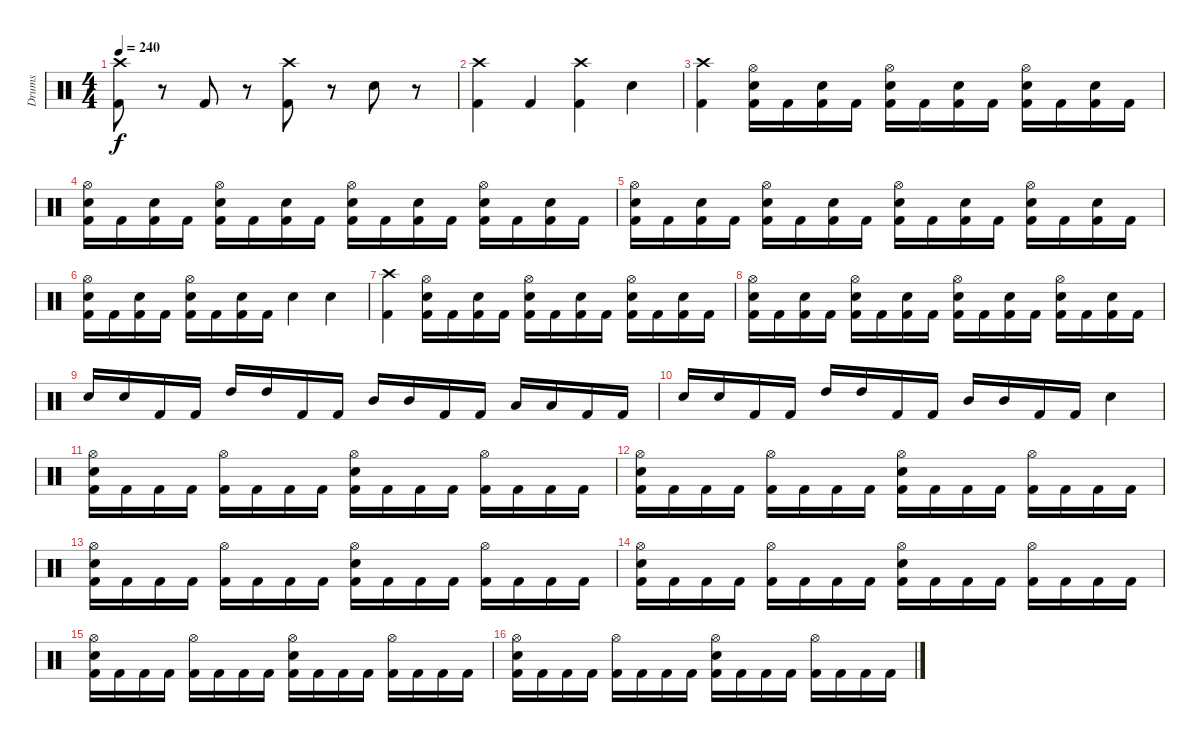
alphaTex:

\track ("Drums" "Drums") {instrument percussion}
\staff {score}
\articulation defaults
\ts (4 4)
\tempo 240
\clef neutral
\ks c
("Crash high (hit)" "Kick (hit) 2").8{dy f} r.8 "Kick (hit) 2".8 r.8 ("Crash high (hit)" "Kick (hit) 2").8 r.8 "Snare (hit) 2".8 r.8 |
("Crash high (hit)" "Kick (hit) 2").4 "Kick (hit) 2".4 ("Crash high (hit)" "Kick (hit) 2").4 "Snare (hit) 2".4 |
("Crash high (hit)" "Kick (hit) 2").4 ("Hi-Hat (open)" "Snare (hit) 2" "Kick (hit) 2").16 "Kick (hit) 2".16 ("Snare (hit) 2" "Kick (hit) 2").16 "Kick (hit) 2".16 ("Hi-Hat (open)" "Snare (hit) 2" "Kick (hit) 2").16 "Kick (hit) 2".16 ("Snare (hit) 2" "Kick (hit) 2").16 "Kick (hit) 2".16 ("Hi-Hat (open)" "Snare (hit) 2" "Kick (hit) 2").16 "Kick (hit) 2".16 ("Snare (hit) 2" "Kick (hit) 2").16 "Kick (hit) 2".16 |
("Hi-Hat (open)" "Snare (hit) 2" "Kick (hit) 2").16 "Kick (hit) 2".16 ("Snare (hit) 2" "Kick (hit) 2").16 "Kick (hit) 2".16 ("Hi-Hat (open)" "Snare (hit) 2" "Kick (hit) 2").16 "Kick (hit) 2".16 ("Snare (hit) 2" "Kick (hit) 2").16 "Kick (hit) 2".16 ("Hi-Hat (open)" "Snare (hit) 2" "Kick (hit) 2").16 "Kick (hit) 2".16 ("Snare (hit) 2" "Kick (hit) 2").16 "Kick (hit) 2".16 ("Hi-Hat (open)" "Snare (hit) 2" "Kick (hit) 2").16 "Kick (hit) 2".16 ("Snare (hit) 2" "Kick (hit) 2").16 "Kick (hit) 2".16 |
("Hi-Hat (open)" "Snare (hit) 2" "Kick (hit) 2").16 "Kick (hit) 2".16 ("Snare (hit) 2" "Kick (hit) 2").16 "Kick (hit) 2".16 ("Hi-Hat (open)" "Snare (hit) 2" "Kick (hit) 2").16 "Kick (hit) 2".16 ("Snare (hit) 2" "Kick (hit) 2").16 "Kick (hit) 2".16 ("Hi-Hat (open)" "Snare (hit) 2" "Kick (hit) 2").16 "Kick (hit) 2".16 ("Snare (hit) 2" "Kick (hit) 2").16 "Kick (hit) 2".16 ("Hi-Hat (open)" "Snare (hit) 2" "Kick (hit) 2").16 "Kick (hit) 2".16 ("Snare (hit) 2" "Kick (hit) 2").16 "Kick (hit) 2".16 |
("Hi-Hat (open)" "Snare (hit) 2" "Kick (hit) 2").16 "Kick (hit) 2".16 ("Snare (hit) 2" "Kick (hit) 2").16 "Kick (hit) 2".16 ("Hi-Hat (open)" "Snare (hit) 2" "Kick (hit) 2").16 "Kick (hit) 2".16 ("Snare (hit) 2" "Kick (hit) 2").16 "Kick (hit) 2".16 "Snare (hit) 2".4 "Snare (hit) 2".4 |
("Crash high (hit)" "Kick (hit) 2").4 ("Hi-Hat (open)" "Snare (hit) 2" "Kick (hit) 2").16 "Kick (hit) 2".16 ("Snare (hit) 2" "Kick (hit) 2").16 "Kick (hit) 2".16 ("Hi-Hat (open)" "Snare (hit) 2" "Kick (hit) 2").16 "Kick (hit) 2".16 ("Snare (hit) 2" "Kick (hit) 2").16 "Kick (hit) 2".16 ("Hi-Hat (open)" "Snare (hit) 2" "Kick (hit) 2").16 "Kick (hit) 2".16 ("Snare (hit) 2" "Kick (hit) 2").16 "Kick (hit) 2".16 |
("Hi-Hat (open)" "Snare (hit) 2" "Kick (hit) 2").16 "Kick (hit) 2".16 ("Snare (hit) 2" "Kick (hit) 2").16 "Kick (hit) 2".16 ("Hi-Hat (open)" "Snare (hit) 2" "Kick (hit) 2").16 "Kick (hit) 2".16 ("Snare (hit) 2" "Kick (hit) 2").16 "Kick (hit) 2".16 ("Hi-Hat (open)" "Snare (hit) 2" "Kick (hit) 2").16 "Kick (hit) 2".16 ("Snare (hit) 2" "Kick (hit) 2").16 "Kick (hit) 2".16 ("Hi-Hat (open)" "Snare (hit) 2" "Kick (hit) 2").16 "Kick (hit) 2".16 ("Snare (hit) 2" "Kick (hit) 2").16 "Kick (hit) 2".16 |
"Snare (hit) 2".16 "Snare (hit) 2".16 "Kick (hit) 2".16 "Kick (hit) 2".16 "High Tom (hit)".16 "High Tom (hit)".16 "Kick (hit) 2".16 "Kick (hit) 2".16 "Mid Tom (hit)".16 "Mid Tom (hit)".16 "Kick (hit) 2".16 "Kick (hit) 2".16 "Low Tom (hit)".16 "Low Tom (hit)".16 "Kick (hit) 2".16 "Kick (hit) 2".16 |
"Snare (hit) 2".16 "Snare (hit) 2".16 "Kick (hit) 2".16 "Kick (hit) 2".16 "High Tom (hit)".16 "High Tom (hit)".16 "Kick (hit) 2".16 "Kick (hit) 2".16 "Mid Tom (hit)".16 "Mid Tom (hit)".16 "Kick (hit) 2".16 "Kick (hit) 2".16 "Snare (hit) 2".4 |
("Hi-Hat (open)" "Snare (hit) 2" "Kick (hit) 2").16 "Kick (hit) 2".16 "Kick (hit) 2".16 "Kick (hit) 2".16 ("Hi-Hat (open)" "Kick (hit) 2").16 "Kick (hit) 2".16 "Kick (hit) 2".16 "Kick (hit) 2".16 ("Hi-Hat (open)" "Snare (hit) 2" "Kick (hit) 2").16 "Kick (hit) 2".16 "Kick (hit) 2".16 "Kick (hit) 2".16 ("Hi-Hat (open)" "Kick (hit) 2").16 "Kick (hit) 2".16 "Kick (hit) 2".16 "Kick (hit) 2".16 |
("Hi-Hat (open)" "Snare (hit) 2" "Kick (hit) 2").16 "Kick (hit) 2".16 "Kick (hit) 2".16 "Kick (hit) 2".16 ("Hi-Hat (open)" "Kick (hit) 2").16 "Kick (hit) 2".16 "Kick (hit) 2".16 "Kick (hit) 2".16 ("Hi-Hat (open)" "Snare (hit) 2" "Kick (hit) 2").16 "Kick (hit) 2".16 "Kick (hit) 2".16 "Kick (hit) 2".16 ("Hi-Hat (open)" "Kick (hit) 2").16 "Kick (hit) 2".16 "Kick (hit) 2".16 "Kick (hit) 2".16 |
("Hi-Hat (open)" "Snare (hit) 2" "Kick (hit) 2").16 "Kick (hit) 2".16 "Kick (hit) 2".16 "Kick (hit) 2".16 ("Hi-Hat (open)" "Kick (hit) 2").16 "Kick (hit) 2".16 "Kick (hit) 2".16 "Kick (hit) 2".16 ("Hi-Hat (open)" "Snare (hit) 2" "Kick (hit) 2").16 "Kick (hit) 2".16 "Kick (hit) 2".16 "Kick (hit) 2".16 ("Hi-Hat (open)" "Kick (hit) 2").16 "Kick (hit) 2".16 "Kick (hit) 2".16 "Kick (hit) 2".16 |
("Hi-Hat (open)" "Snare (hit) 2" "Kick (hit) 2").16 "Kick (hit) 2".16 "Kick (hit) 2".16 "Kick (hit) 2".16 ("Hi-Hat (open)" "Kick (hit) 2").16 "Kick (hit) 2".16 "Kick (hit) 2".16 "Kick (hit) 2".16 ("Hi-Hat (open)" "Snare (hit) 2" "Kick (hit) 2").16 "Kick (hit) 2".16 "Kick (hit) 2".16 "Kick (hit) 2".16 ("Hi-Hat (open)" "Kick (hit) 2").16 "Kick (hit) 2".16 "Kick (hit) 2".16 "Kick (hit) 2".16 |
("Hi-Hat (open)" "Snare (hit) 2" "Kick (hit) 2").16 "Kick (hit) 2".16 "Kick (hit) 2".16 "Kick (hit) 2".16 ("Hi-Hat (open)" "Kick (hit) 2").16 "Kick (hit) 2".16 "Kick (hit) 2".16 "Kick (hit) 2".16 ("Hi-Hat (open)" "Snare (hit) 2" "Kick (hit) 2").16 "Kick (hit) 2".16 "Kick (hit) 2".16 "Kick (hit) 2".16 ("Hi-Hat (open)" "Kick (hit) 2").16 "Kick (hit) 2".16 "Kick (hit) 2".16 "Kick (hit) 2".16 |
("Hi-Hat (open)" "Snare (hit) 2" "Kick (hit) 2").16 "Kick (hit) 2".16 "Kick (hit) 2".16 "Kick (hit) 2".16 ("Hi-Hat (open)" "Kick (hit) 2").16 "Kick (hit) 2".16 "Kick (hit) 2".16 "Kick (hit) 2".16 ("Hi-Hat (open)" "Snare (hit) 2" "Kick (hit) 2").16 "Kick (hit) 2".16 "Kick (hit) 2".16 "Kick (hit) 2".16 ("Hi-Hat (open)" "Kick (hit) 2").16 "Kick (hit) 2".16 "Kick (hit) 2".16 "Kick (hit) 2".16
